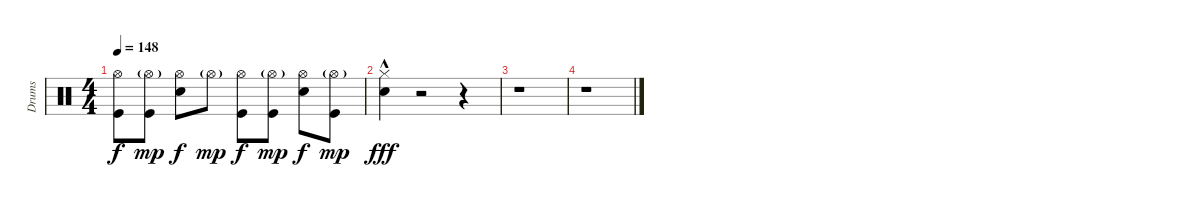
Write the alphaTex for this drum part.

\track ("Drums" "Drums") {instrument percussion}
\staff
\articulation defaults
\ts (4 4)
\tempo 148
\clef neutral
\ks c
("Hi-Hat (open)" "Kick (hit)").8{dy f} ("Hi-Hat (open)"{g} "Kick (hit)").8{dy mp} ("Hi-Hat (open)" "Snare (hit) 2").8{dy f} "Hi-Hat (open)"{g}.8{dy mp} ("Hi-Hat (open)" "Kick (hit)").8{dy f} ("Hi-Hat (open)"{g} "Kick (hit)").8{dy mp} ("Hi-Hat (open)" "Snare (hit) 2").8{dy f} ("Hi-Hat (open)"{g} "Kick (hit)").8{dy mp} |
("Hi-Hat (closed)"{hac} "Snare (hit) 2").4{dy fff} r.2 r.4 |
r.1 |
r.1
